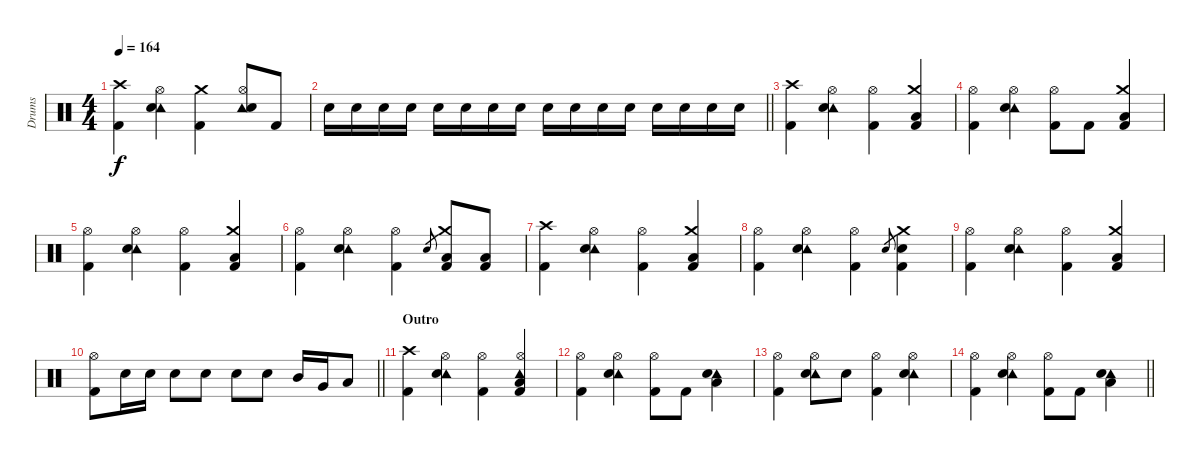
\track ("Drums" "Drums") {instrument percussion}
\staff {score}
\articulation defaults
\ts (4 4)
\tempo 164
\clef neutral
\ks c
("Crash high (hit)" "Kick (hit) 2").4{dy f} ("Tambourine (hit)" "Hi-Hat (open)" "Snare (hit) 2").4 ("Crash medium (hit)" "Kick (hit) 2").4 ("Tambourine (hit)" "Hi-Hat (open)" "Snare (hit) 2").8 "Kick (hit) 2".8 |
\barLineRight lightlight "Snare (hit) 2".16 "Snare (hit) 2".16 "Snare (hit) 2".16 "Snare (hit) 2".16 "Snare (hit) 2".16 "Snare (hit) 2".16 "Snare (hit) 2".16 "Snare (hit) 2".16 "Snare (hit) 2".16 "Snare (hit) 2".16 "Snare (hit) 2".16 "Snare (hit) 2".16 "Snare (hit) 2".16 "Snare (hit) 2".16 "Snare (hit) 2".16 "Snare (hit) 2".16
|
("Crash high (hit)" "Kick (hit) 2").4 ("Tambourine (hit)" "Hi-Hat (open)" "Snare (hit) 2").4 ("Hi-Hat (open)" "Kick (hit) 2").4 ("Crash medium (hit)" "Low Tom (hit)" "Kick (hit) 2").4 |
("Hi-Hat (open)" "Kick (hit) 2").4 ("Tambourine (hit)" "Hi-Hat (open)" "Snare (hit) 2").4 ("Hi-Hat (open)" "Kick (hit) 2").8 "Kick (hit) 2".8 ("Crash medium (hit)" "Low Tom (hit)" "Kick (hit) 2").4 |
("Hi-Hat (open)" "Kick (hit) 2").4 ("Tambourine (hit)" "Hi-Hat (open)" "Snare (hit) 2").4 ("Hi-Hat (open)" "Kick (hit) 2").4 ("Crash medium (hit)" "Low Tom (hit)" "Kick (hit) 2").4 |
("Hi-Hat (open)" "Kick (hit) 2").4 ("Tambourine (hit)" "Hi-Hat (open)" "Snare (hit) 2").4 ("Hi-Hat (open)" "Kick (hit) 2").4 "Snare (hit) 2".8{gr} ("Crash medium (hit)" "Low Tom (hit)" "Kick (hit) 2").8 ("Low Tom (hit)" "Kick (hit) 2").8 |
("Crash high (hit)" "Kick (hit) 2").4 ("Tambourine (hit)" "Hi-Hat (open)" "Snare (hit) 2").4 ("Hi-Hat (open)" "Kick (hit) 2").4 ("Crash medium (hit)" "Low Tom (hit)" "Kick (hit) 2").4 |
("Hi-Hat (open)" "Kick (hit) 2").4 ("Tambourine (hit)" "Hi-Hat (open)" "Snare (hit) 2").4 ("Hi-Hat (open)" "Kick (hit) 2").4 "Snare (hit) 2".8{gr} ("Crash medium (hit)" "Snare (hit) 2" "Kick (hit) 2").4 |
("Hi-Hat (open)" "Kick (hit) 2").4 ("Tambourine (hit)" "Hi-Hat (open)" "Snare (hit) 2").4 ("Hi-Hat (open)" "Kick (hit) 2").4 ("Crash medium (hit)" "Low Tom (hit)" "Kick (hit) 2").4 |
\barLineRight lightlight
("Hi-Hat (open)" "Kick (hit) 2").8 "Snare (hit) 2".16 "Snare (hit) 2".16 "Snare (hit) 2".8 "Snare (hit) 2".8 "Snare (hit) 2".8 "Snare (hit) 2".8 "Mid Tom (hit)".16 "Very Low Tom (hit)".16 "Low Tom (hit)".8 |
\section ("" "Outro")
("Crash high (hit)" "Kick (hit) 2").4{volume 2} ("Tambourine (hit)" "Hi-Hat (open)" "Snare (hit) 2").4 ("Hi-Hat (open)" "Kick (hit) 2").4 ("Tambourine (hit)" "Hi-Hat (open)" "Low Tom (hit)" "Kick (hit) 2").4 |
("Hi-Hat (open)" "Kick (hit) 2").4 ("Tambourine (hit)" "Hi-Hat (open)" "Snare (hit) 2").4 ("Hi-Hat (open)" "Kick (hit) 2").8 "Kick (hit) 2".8 ("Tambourine (hit)" "Snare (hit) 2" "Low Tom (hit)").4 |
("Hi-Hat (open)" "Kick (hit) 2").4 ("Tambourine (hit)" "Hi-Hat (open)" "Snare (hit) 2").8 "Snare (hit) 2".8 ("Hi-Hat (open)" "Kick (hit) 2").4 ("Tambourine (hit)" "Hi-Hat (open)" "Snare (hit) 2").4 |
\barLineRight lightlight
("Hi-Hat (open)" "Kick (hit) 2").4 ("Tambourine (hit)" "Hi-Hat (open)" "Snare (hit) 2").4 ("Hi-Hat (open)" "Kick (hit) 2").8 "Kick (hit) 2".8 ("Tambourine (hit)" "Snare (hit) 2" "Low Tom (hit)").4
